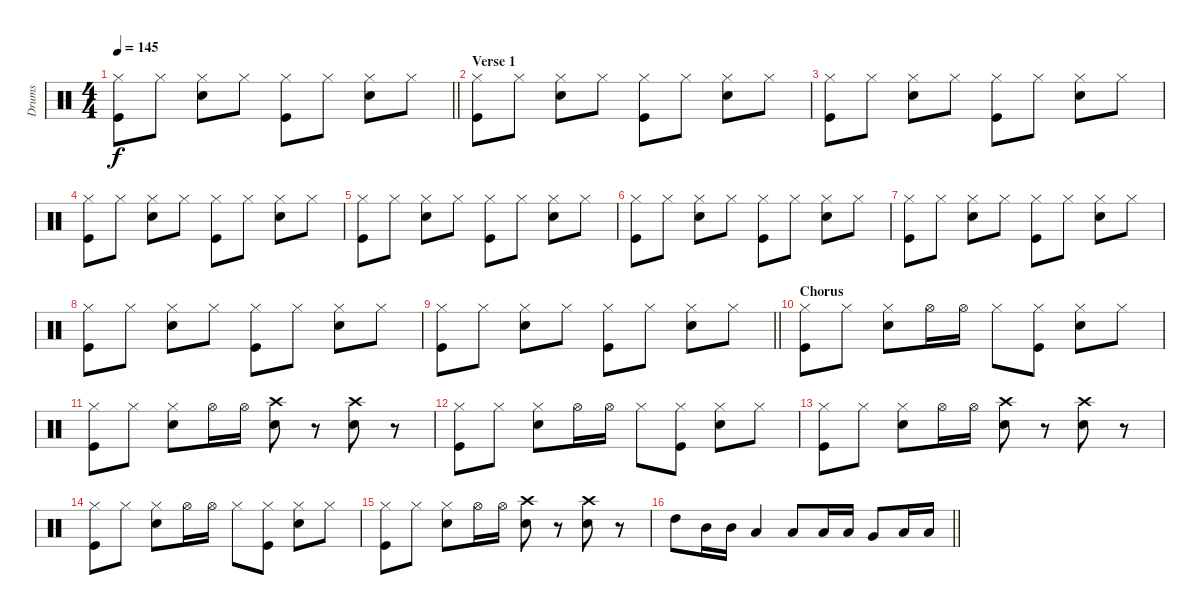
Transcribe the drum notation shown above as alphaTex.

\track ("Drums" "Drums") {instrument percussion}
\staff {score}
\articulation defaults
\ts (4 4)
\tempo 145
\clef neutral
\barLineRight lightlight
\ks c
("Hi-Hat (closed)" "Kick (hit)").8{dy f} "Hi-Hat (closed)".8 ("Hi-Hat (closed)" "Snare (hit) 2").8 "Hi-Hat (closed)".8 ("Hi-Hat (closed)" "Kick (hit)").8 "Hi-Hat (closed)".8 ("Hi-Hat (closed)" "Snare (hit) 2").8 "Hi-Hat (closed)".8 |
\section ("" "Verse 1")
("Hi-Hat (closed)" "Kick (hit)").8 "Hi-Hat (closed)".8 ("Hi-Hat (closed)" "Snare (hit) 2").8 "Hi-Hat (closed)".8 ("Hi-Hat (closed)" "Kick (hit)").8 "Hi-Hat (closed)".8 ("Hi-Hat (closed)" "Snare (hit) 2").8 "Hi-Hat (closed)".8 |
("Hi-Hat (closed)" "Kick (hit)").8 "Hi-Hat (closed)".8 ("Hi-Hat (closed)" "Snare (hit) 2").8 "Hi-Hat (closed)".8 ("Hi-Hat (closed)" "Kick (hit)").8 "Hi-Hat (closed)".8 ("Hi-Hat (closed)" "Snare (hit) 2").8 "Hi-Hat (closed)".8 |
("Hi-Hat (closed)" "Kick (hit)").8 "Hi-Hat (closed)".8 ("Hi-Hat (closed)" "Snare (hit) 2").8 "Hi-Hat (closed)".8 ("Hi-Hat (closed)" "Kick (hit)").8 "Hi-Hat (closed)".8 ("Hi-Hat (closed)" "Snare (hit) 2").8 "Hi-Hat (closed)".8 |
("Hi-Hat (closed)" "Kick (hit)").8 "Hi-Hat (closed)".8 ("Hi-Hat (closed)" "Snare (hit) 2").8 "Hi-Hat (closed)".8 ("Hi-Hat (closed)" "Kick (hit)").8 "Hi-Hat (closed)".8 ("Hi-Hat (closed)" "Snare (hit) 2").8 "Hi-Hat (closed)".8 |
("Hi-Hat (closed)" "Kick (hit)").8 "Hi-Hat (closed)".8 ("Hi-Hat (closed)" "Snare (hit) 2").8 "Hi-Hat (closed)".8 ("Hi-Hat (closed)" "Kick (hit)").8 "Hi-Hat (closed)".8 ("Hi-Hat (closed)" "Snare (hit) 2").8 "Hi-Hat (closed)".8 |
("Hi-Hat (closed)" "Kick (hit)").8 "Hi-Hat (closed)".8 ("Hi-Hat (closed)" "Snare (hit) 2").8 "Hi-Hat (closed)".8 ("Hi-Hat (closed)" "Kick (hit)").8 "Hi-Hat (closed)".8 ("Hi-Hat (closed)" "Snare (hit) 2").8 "Hi-Hat (closed)".8 |
("Hi-Hat (closed)" "Kick (hit)").8 "Hi-Hat (closed)".8 ("Hi-Hat (closed)" "Snare (hit) 2").8 "Hi-Hat (closed)".8 ("Hi-Hat (closed)" "Kick (hit)").8 "Hi-Hat (closed)".8 ("Hi-Hat (closed)" "Snare (hit) 2").8 "Hi-Hat (closed)".8 |
\barLineRight lightlight
("Hi-Hat (closed)" "Kick (hit)").8 "Hi-Hat (closed)".8 ("Hi-Hat (closed)" "Snare (hit) 2").8 "Hi-Hat (closed)".8 ("Hi-Hat (closed)" "Kick (hit)").8 "Hi-Hat (closed)".8 ("Hi-Hat (closed)" "Snare (hit) 2").8 "Hi-Hat (closed)".8 |
\section ("" "Chorus")
("Hi-Hat (closed)" "Kick (hit)").8 "Hi-Hat (closed)".8 ("Hi-Hat (closed)" "Snare (hit) 2").8 "Hi-Hat (open)".16 "Hi-Hat (open)".16 "Hi-Hat (closed)".8 ("Hi-Hat (closed)" "Kick (hit)").8 ("Hi-Hat (closed)" "Snare (hit) 2").8 "Hi-Hat (closed)".8 |
("Hi-Hat (closed)" "Kick (hit)").8 "Hi-Hat (closed)".8 ("Hi-Hat (closed)" "Snare (hit) 2").8 "Hi-Hat (open)".16 "Hi-Hat (open)".16 ("Crash high (hit)" "Snare (hit) 2").8 r.8 ("Crash high (hit)" "Snare (hit) 2").8 r.8 |
("Hi-Hat (closed)" "Kick (hit)").8 "Hi-Hat (closed)".8 ("Hi-Hat (closed)" "Snare (hit) 2").8 "Hi-Hat (open)".16 "Hi-Hat (open)".16 "Hi-Hat (closed)".8 ("Hi-Hat (closed)" "Kick (hit)").8 ("Hi-Hat (closed)" "Snare (hit) 2").8 "Hi-Hat (closed)".8 |
("Hi-Hat (closed)" "Kick (hit)").8 "Hi-Hat (closed)".8 ("Hi-Hat (closed)" "Snare (hit) 2").8 "Hi-Hat (open)".16 "Hi-Hat (open)".16 ("Crash high (hit)" "Snare (hit) 2").8 r.8 ("Crash high (hit)" "Snare (hit) 2").8 r.8 |
("Hi-Hat (closed)" "Kick (hit)").8 "Hi-Hat (closed)".8 ("Hi-Hat (closed)" "Snare (hit) 2").8 "Hi-Hat (open)".16 "Hi-Hat (open)".16 "Hi-Hat (closed)".8 ("Hi-Hat (closed)" "Kick (hit)").8 ("Hi-Hat (closed)" "Snare (hit) 2").8 "Hi-Hat (closed)".8 |
("Hi-Hat (closed)" "Kick (hit)").8 "Hi-Hat (closed)".8 ("Hi-Hat (closed)" "Snare (hit) 2").8 "Hi-Hat (open)".16 "Hi-Hat (open)".16 ("Crash high (hit)" "Snare (hit) 2").8 r.8 ("Crash high (hit)" "Snare (hit) 2").8 r.8 |
\barLineRight lightlight "High Tom (hit)".8 "Mid Tom (hit)".16 "Mid Tom (hit)".16 "Low Tom (hit)".4 "Low Tom (hit)".8 "Low Tom (hit)".16 "Low Tom (hit)".16 "Very Low Tom (hit)".8 "Low Floor Tom (hit)".16 "Low Floor Tom (hit)".16
